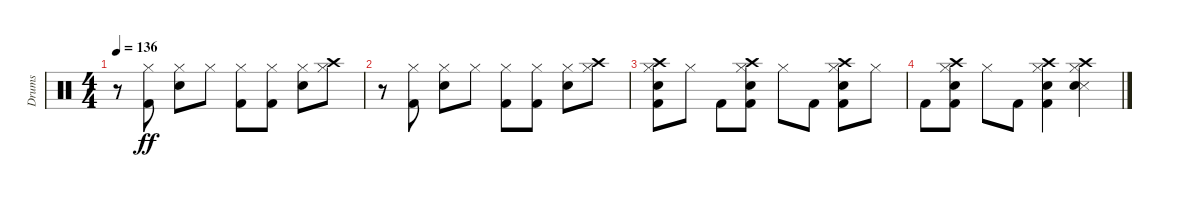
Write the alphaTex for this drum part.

\track ("Drums" "Drums") {instrument percussion}
\staff {score}
\articulation defaults
\ts (4 4)
\tempo 136
\clef neutral
\ks c
r.8{dy ff} ("Kick (hit) 2" "Hi-Hat (closed)").8 ("Snare (hit) 2" "Hi-Hat (closed)").8 "Hi-Hat (closed)".8 ("Kick (hit) 2" "Hi-Hat (closed)").8 ("Kick (hit) 2" "Hi-Hat (closed)").8 ("Snare (hit) 2" "Hi-Hat (closed)").8 ("Hi-Hat (closed)" "Crash high (hit)").8 |
r.8 ("Kick (hit) 2" "Hi-Hat (closed)").8 ("Snare (hit) 2" "Hi-Hat (closed)").8 "Hi-Hat (closed)".8 ("Kick (hit) 2" "Hi-Hat (closed)").8 ("Kick (hit) 2" "Hi-Hat (closed)").8 ("Snare (hit) 2" "Hi-Hat (closed)").8 ("Hi-Hat (closed)" "Crash high (hit)").8 |
("Kick (hit) 2" "Snare (hit) 2" "Hi-Hat (closed)" "Crash high (hit)").8 "Hi-Hat (closed)".8 "Kick (hit) 2".8 ("Kick (hit) 2" "Snare (hit) 2" "Hi-Hat (closed)" "Crash high (hit)").8 "Hi-Hat (closed)".8 "Kick (hit) 2".8 ("Kick (hit) 2" "Snare (hit) 2" "Hi-Hat (closed)" "Crash high (hit)").8 "Hi-Hat (closed)".8 |
"Kick (hit) 2".8 ("Kick (hit) 2" "Snare (hit) 2" "Hi-Hat (closed)" "Crash high (hit)").8 "Hi-Hat (closed)".8 "Kick (hit) 2".8 ("Kick (hit) 2" "Snare (hit) 2" "Hi-Hat (closed)" "Crash high (hit)").4 ("Snare (side stick) 3" "Snare (hit) 2" "Hi-Hat (closed)" "Crash high (hit)").4
